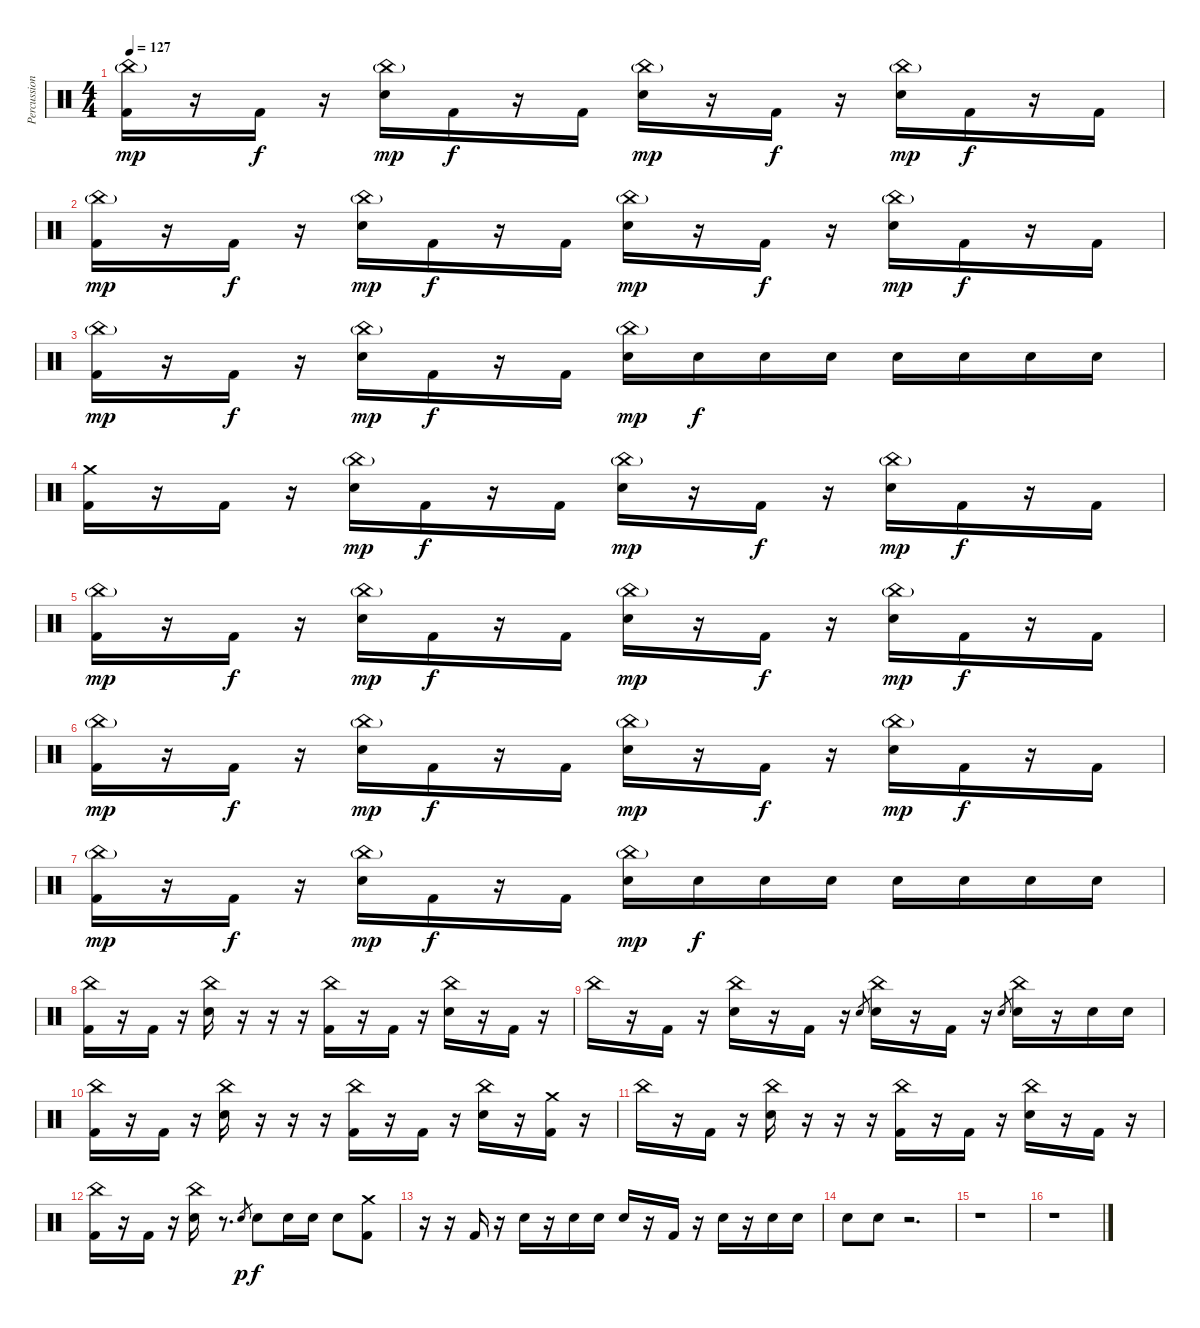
\track ("Percussion" "Percussion") {instrument percussion}
\staff {score}
\articulation defaults
\ts (4 4)
\tempo 127
\clef neutral
\ks c
("China (hit)"{g} "Kick (hit) 2").16{dy mp} r.16 "Kick (hit) 2".16{dy f} r.16 ("China (hit)"{g} "Electric Snare (hit)").16{dy mp} "Kick (hit) 2".16{dy f} r.16 "Kick (hit) 2".16 ("China (hit)"{g} "Electric Snare (hit)").16{dy mp} r.16 "Kick (hit) 2".16{dy f} r.16 ("China (hit)"{g} "Electric Snare (hit)").16{dy mp} "Kick (hit) 2".16{dy f} r.16 "Kick (hit) 2".16 |
("China (hit)"{g} "Kick (hit) 2").16{dy mp} r.16 "Kick (hit) 2".16{dy f} r.16 ("China (hit)"{g} "Electric Snare (hit)").16{dy mp} "Kick (hit) 2".16{dy f} r.16 "Kick (hit) 2".16 ("China (hit)"{g} "Electric Snare (hit)").16{dy mp} r.16 "Kick (hit) 2".16{dy f} r.16 ("China (hit)"{g} "Electric Snare (hit)").16{dy mp} "Kick (hit) 2".16{dy f} r.16 "Kick (hit) 2".16 |
("China (hit)"{g} "Kick (hit) 2").16{dy mp} r.16 "Kick (hit) 2".16{dy f} r.16 ("China (hit)"{g} "Electric Snare (hit)").16{dy mp} "Kick (hit) 2".16{dy f} r.16 "Kick (hit) 2".16 ("China (hit)"{g} "Electric Snare (hit)").16{dy mp} "Electric Snare (hit)".16{dy f} "Electric Snare (hit)".16 "Electric Snare (hit)".16 "Electric Snare (hit)".16 "Electric Snare (hit)".16 "Electric Snare (hit)".16 "Electric Snare (hit)".16 |
("Crash medium (hit)" "Kick (hit) 2").16 r.16 "Kick (hit) 2".16 r.16 ("China (hit)"{g} "Electric Snare (hit)").16{dy mp} "Kick (hit) 2".16{dy f} r.16 "Kick (hit) 2".16 ("China (hit)"{g} "Electric Snare (hit)").16{dy mp} r.16 "Kick (hit) 2".16{dy f} r.16 ("China (hit)"{g} "Electric Snare (hit)").16{dy mp} "Kick (hit) 2".16{dy f} r.16 "Kick (hit) 2".16 |
("China (hit)"{g} "Kick (hit) 2").16{dy mp} r.16 "Kick (hit) 2".16{dy f} r.16 ("China (hit)"{g} "Electric Snare (hit)").16{dy mp} "Kick (hit) 2".16{dy f} r.16 "Kick (hit) 2".16 ("China (hit)"{g} "Electric Snare (hit)").16{dy mp} r.16 "Kick (hit) 2".16{dy f} r.16 ("China (hit)"{g} "Electric Snare (hit)").16{dy mp} "Kick (hit) 2".16{dy f} r.16 "Kick (hit) 2".16 |
("China (hit)"{g} "Kick (hit) 2").16{dy mp} r.16 "Kick (hit) 2".16{dy f} r.16 ("China (hit)"{g} "Electric Snare (hit)").16{dy mp} "Kick (hit) 2".16{dy f} r.16 "Kick (hit) 2".16 ("China (hit)"{g} "Electric Snare (hit)").16{dy mp} r.16 "Kick (hit) 2".16{dy f} r.16 ("China (hit)"{g} "Electric Snare (hit)").16{dy mp} "Kick (hit) 2".16{dy f} r.16 "Kick (hit) 2".16 |
("China (hit)"{g} "Kick (hit) 2").16{dy mp} r.16 "Kick (hit) 2".16{dy f} r.16 ("China (hit)"{g} "Electric Snare (hit)").16{dy mp} "Kick (hit) 2".16{dy f} r.16 "Kick (hit) 2".16 ("China (hit)"{g} "Electric Snare (hit)").16{dy mp} "Electric Snare (hit)".16{dy f} "Electric Snare (hit)".16 "Electric Snare (hit)".16 "Electric Snare (hit)".16 "Electric Snare (hit)".16 "Electric Snare (hit)".16 "Electric Snare (hit)".16 |
("China (hit)" "Kick (hit) 2").16 r.16 "Kick (hit) 2".16 r.16 ("China (hit)" "Electric Snare (hit)").16 r.16 r.16 r.16 ("China (hit)" "Kick (hit) 2").16 r.16 "Kick (hit) 2".16 r.16 ("China (hit)" "Electric Snare (hit)").16 r.16 "Kick (hit) 2".16 r.16 |
"China (hit)".16 r.16 "Kick (hit) 2".16 r.16 ("China (hit)" "Electric Snare (hit)").16 r.16 "Kick (hit) 2".16 r.16 "Electric Snare (hit)".8{gr} ("China (hit)" "Electric Snare (hit)").16 r.16 "Kick (hit) 2".16 r.16 "Electric Snare (hit)".8{gr} ("China (hit)" "Electric Snare (hit)").16 r.16 "Electric Snare (hit)".16 "Electric Snare (hit)".16 |
("China (hit)" "Kick (hit) 2").16 r.16 "Kick (hit) 2".16 r.16 ("China (hit)" "Electric Snare (hit)").16 r.16 r.16 r.16 ("China (hit)" "Kick (hit) 2").16 r.16 "Kick (hit) 2".16 r.16 ("China (hit)" "Electric Snare (hit)").16 r.16 ("Crash medium (hit)" "Kick (hit) 2").16 r.16 |
"China (hit)".16 r.16 "Kick (hit) 2".16 r.16 ("China (hit)" "Electric Snare (hit)").16 r.16 r.16 r.16 ("China (hit)" "Kick (hit) 2").16 r.16 "Kick (hit) 2".16 r.16 ("China (hit)" "Electric Snare (hit)").16 r.16 "Kick (hit) 2".16 r.16 |
("China (hit)" "Kick (hit) 2").16 r.16 "Kick (hit) 2".16 r.16 ("China (hit)" "Electric Snare (hit)").16 r.8{d} "Electric Snare (hit)".8{gr dy p} "Electric Snare (hit)".8{dy f} "Electric Snare (hit)".16 "Electric Snare (hit)".16 "Electric Snare (hit)".8 ("Crash medium (hit)" "Kick (hit) 2").8 |
r.16 r.16 "Kick (hit) 2".16 r.16 "Electric Snare (hit)".16 r.16 "Electric Snare (hit)".16 "Electric Snare (hit)".16 "Electric Snare (hit)".16 r.16 "Kick (hit) 2".16 r.16 "Electric Snare (hit)".16 r.16 "Electric Snare (hit)".16 "Electric Snare (hit)".16 |
"Electric Snare (hit)".8 "Electric Snare (hit)".8 r.2{d} |
r.1 |
r.1
